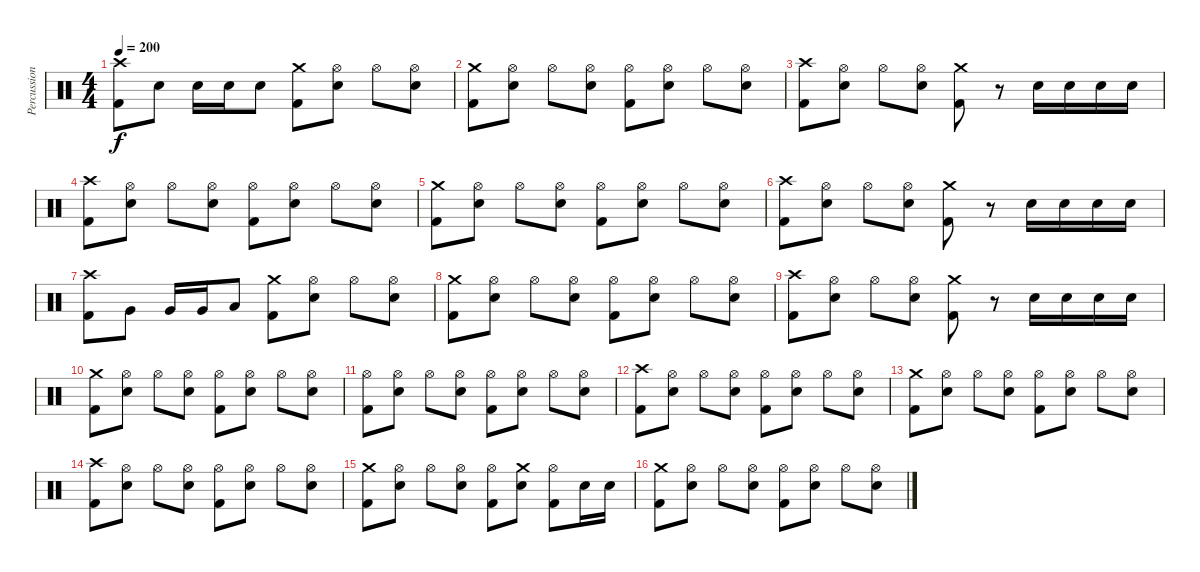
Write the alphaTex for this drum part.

\track ("Percussion" "Percussion") {instrument percussion}
\staff {score}
\articulation defaults
\ts (4 4)
\tempo 200
\clef neutral
\ks c
("Crash high (hit)" "Kick (hit) 2").8{dy f} "Electric Snare (hit)".8 "Electric Snare (hit)".16 "Electric Snare (hit)".16 "Electric Snare (hit)".8 ("Crash medium (hit)" "Kick (hit) 2").8 ("Hi-Hat (open)" "Electric Snare (hit)").8 "Hi-Hat (open)".8 ("Hi-Hat (open)" "Electric Snare (hit)").8 |
("Crash medium (hit)" "Kick (hit) 2").8 ("Hi-Hat (open)" "Electric Snare (hit)").8 "Hi-Hat (open)".8 ("Hi-Hat (open)" "Electric Snare (hit)").8 ("Hi-Hat (open)" "Kick (hit) 2").8 ("Hi-Hat (open)" "Electric Snare (hit)").8 "Hi-Hat (open)".8 ("Hi-Hat (open)" "Electric Snare (hit)").8 |
("Crash high (hit)" "Kick (hit) 2").8 ("Hi-Hat (open)" "Electric Snare (hit)").8 "Hi-Hat (open)".8 ("Hi-Hat (open)" "Electric Snare (hit)").8 ("Crash medium (hit)" "Kick (hit) 2").8 r.8 "Electric Snare (hit)".16 "Electric Snare (hit)".16 "Electric Snare (hit)".16 "Electric Snare (hit)".16 |
("Crash high (hit)" "Kick (hit) 2").8 ("Hi-Hat (open)" "Electric Snare (hit)").8 "Hi-Hat (open)".8 ("Hi-Hat (open)" "Electric Snare (hit)").8 ("Hi-Hat (open)" "Kick (hit) 2").8 ("Hi-Hat (open)" "Electric Snare (hit)").8 "Hi-Hat (open)".8 ("Hi-Hat (open)" "Electric Snare (hit)").8 |
("Crash medium (hit)" "Kick (hit) 2").8 ("Hi-Hat (open)" "Electric Snare (hit)").8 "Hi-Hat (open)".8 ("Hi-Hat (open)" "Electric Snare (hit)").8 ("Hi-Hat (open)" "Kick (hit) 2").8 ("Hi-Hat (open)" "Electric Snare (hit)").8 "Hi-Hat (open)".8 ("Hi-Hat (open)" "Electric Snare (hit)").8 |
("Crash high (hit)" "Kick (hit) 2").8 ("Hi-Hat (open)" "Electric Snare (hit)").8 "Hi-Hat (open)".8 ("Hi-Hat (open)" "Electric Snare (hit)").8 ("Crash medium (hit)" "Kick (hit) 2").8 r.8 "Electric Snare (hit)".16 "Electric Snare (hit)".16 "Electric Snare (hit)".16 "Electric Snare (hit)".16 |
("Crash high (hit)" "Kick (hit) 2").8 "Very Low Tom (hit)".8 "Very Low Tom (hit)".16 "Very Low Tom (hit)".16 "Low Floor Tom (hit)".8 ("Crash medium (hit)" "Kick (hit) 2").8 ("Hi-Hat (open)" "Electric Snare (hit)").8 "Hi-Hat (open)".8 ("Hi-Hat (open)" "Electric Snare (hit)").8 |
("Crash medium (hit)" "Kick (hit) 2").8 ("Hi-Hat (open)" "Electric Snare (hit)").8 "Hi-Hat (open)".8 ("Hi-Hat (open)" "Electric Snare (hit)").8 ("Hi-Hat (open)" "Kick (hit) 2").8 ("Hi-Hat (open)" "Electric Snare (hit)").8 "Hi-Hat (open)".8 ("Hi-Hat (open)" "Electric Snare (hit)").8 |
("Crash high (hit)" "Kick (hit) 2").8 ("Hi-Hat (open)" "Electric Snare (hit)").8 "Hi-Hat (open)".8 ("Hi-Hat (open)" "Electric Snare (hit)").8 ("Crash medium (hit)" "Kick (hit) 2").8 r.8 "Electric Snare (hit)".16 "Electric Snare (hit)".16 "Electric Snare (hit)".16 "Electric Snare (hit)".16 |
("Crash medium (hit)" "Kick (hit) 2").8 ("Hi-Hat (open)" "Electric Snare (hit)").8 "Hi-Hat (open)".8 ("Hi-Hat (open)" "Electric Snare (hit)").8 ("Hi-Hat (open)" "Kick (hit) 2").8 ("Hi-Hat (open)" "Electric Snare (hit)").8 "Hi-Hat (open)".8 ("Hi-Hat (open)" "Electric Snare (hit)").8 |
("Hi-Hat (open)" "Kick (hit) 2").8 ("Hi-Hat (open)" "Electric Snare (hit)").8 "Hi-Hat (open)".8 ("Hi-Hat (open)" "Electric Snare (hit)").8 ("Hi-Hat (open)" "Kick (hit) 2").8 ("Hi-Hat (open)" "Electric Snare (hit)").8 "Hi-Hat (open)".8 ("Hi-Hat (open)" "Electric Snare (hit)").8 |
("Crash high (hit)" "Kick (hit) 2").8 ("Hi-Hat (open)" "Electric Snare (hit)").8 "Hi-Hat (open)".8 ("Hi-Hat (open)" "Electric Snare (hit)").8 ("Hi-Hat (open)" "Kick (hit) 2").8 ("Hi-Hat (open)" "Electric Snare (hit)").8 "Hi-Hat (open)".8 ("Hi-Hat (open)" "Electric Snare (hit)").8 |
("Crash medium (hit)" "Kick (hit) 2").8 ("Hi-Hat (open)" "Electric Snare (hit)").8 "Hi-Hat (open)".8 ("Hi-Hat (open)" "Electric Snare (hit)").8 ("Hi-Hat (open)" "Kick (hit) 2").8 ("Hi-Hat (open)" "Electric Snare (hit)").8 "Hi-Hat (open)".8 ("Hi-Hat (open)" "Electric Snare (hit)").8 |
("Crash high (hit)" "Kick (hit) 2").8 ("Hi-Hat (open)" "Electric Snare (hit)").8 "Hi-Hat (open)".8 ("Hi-Hat (open)" "Electric Snare (hit)").8 ("Hi-Hat (open)" "Kick (hit) 2").8 ("Hi-Hat (open)" "Electric Snare (hit)").8 "Hi-Hat (open)".8 ("Hi-Hat (open)" "Electric Snare (hit)").8 |
("Crash medium (hit)" "Kick (hit) 2").8 ("Hi-Hat (open)" "Electric Snare (hit)").8 "Hi-Hat (open)".8 ("Hi-Hat (open)" "Electric Snare (hit)").8 ("Hi-Hat (open)" "Kick (hit) 2").8 ("Crash medium (hit)" "Electric Snare (hit)").8 ("Hi-Hat (open)" "Kick (hit) 2").8 "Electric Snare (hit)".16 "Electric Snare (hit)".16 |
("Crash medium (hit)" "Kick (hit) 2").8 ("Hi-Hat (open)" "Electric Snare (hit)").8 "Hi-Hat (open)".8 ("Hi-Hat (open)" "Electric Snare (hit)").8 ("Hi-Hat (open)" "Kick (hit) 2").8 ("Hi-Hat (open)" "Electric Snare (hit)").8 "Hi-Hat (open)".8 ("Hi-Hat (open)" "Electric Snare (hit)").8
